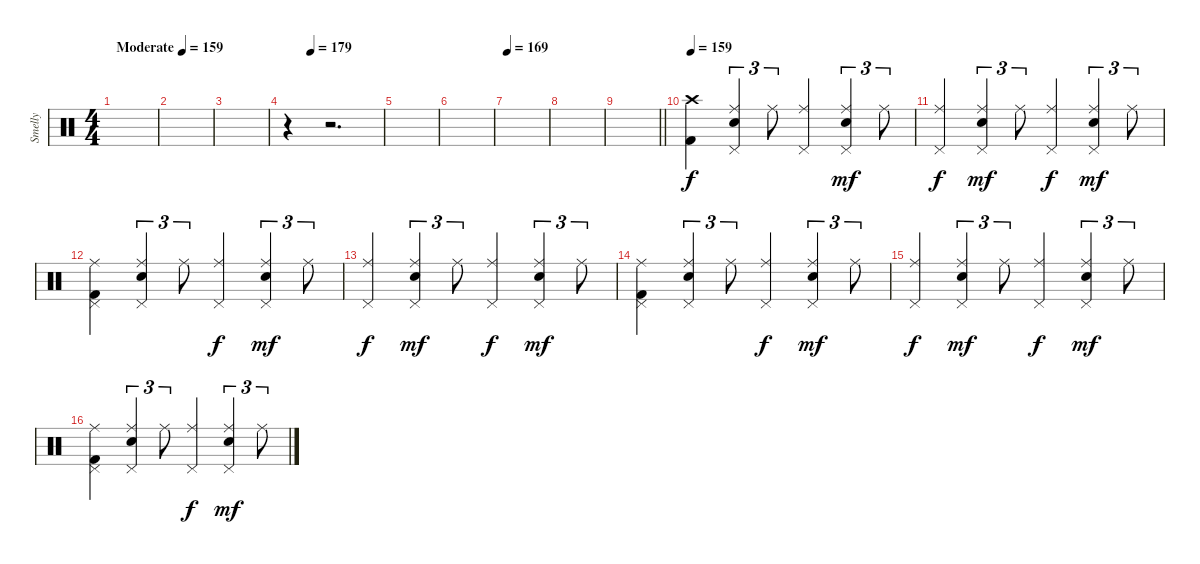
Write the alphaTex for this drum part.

\track ("Smelly" "Smelly") {instrument percussion}
\staff {score}
\articulation defaults
\ts (4 4)
\tempo (159 "Moderate")
\clef neutral
\ks c
|
|
|
\tempo (179 0.25)
r.4 r.2{d} |
|
|
\tempo 169
|
|
\barLineRight lightlight
|
\section ("" "")
\tempo 159
("Crash high (hit)" "Kick (hit) 2").4 ("Pedal Hi-Hat (hit)" "Ride (middle)" "Electric Snare (hit)").4{tu (3 2)} "Ride (middle)".8{tu (3 2)} ("Pedal Hi-Hat (hit)" "Ride (middle)").4{dy f} ("Pedal Hi-Hat (hit)" "Ride (middle)" "Electric Snare (hit)").4{tu (3 2) dy mf} "Ride (middle)".8{tu (3 2)} |
("Pedal Hi-Hat (hit)" "Ride (middle)").4{dy f} ("Pedal Hi-Hat (hit)" "Ride (middle)" "Electric Snare (hit)").4{tu (3 2) dy mf} "Ride (middle)".8{tu (3 2)} ("Pedal Hi-Hat (hit)" "Ride (middle)").4{dy f} ("Pedal Hi-Hat (hit)" "Ride (middle)" "Electric Snare (hit)").4{tu (3 2) dy mf} "Ride (middle)".8{tu (3 2)} |
("Pedal Hi-Hat (hit)" "Ride (middle)" "Kick (hit) 2").4 ("Pedal Hi-Hat (hit)" "Ride (middle)" "Electric Snare (hit)").4{tu (3 2)} "Ride (middle)".8{tu (3 2)} ("Pedal Hi-Hat (hit)" "Ride (middle)").4{dy f} ("Pedal Hi-Hat (hit)" "Ride (middle)" "Electric Snare (hit)").4{tu (3 2) dy mf} "Ride (middle)".8{tu (3 2)} |
("Pedal Hi-Hat (hit)" "Ride (middle)").4{dy f} ("Pedal Hi-Hat (hit)" "Ride (middle)" "Electric Snare (hit)").4{tu (3 2) dy mf} "Ride (middle)".8{tu (3 2)} ("Pedal Hi-Hat (hit)" "Ride (middle)").4{dy f} ("Pedal Hi-Hat (hit)" "Ride (middle)" "Electric Snare (hit)").4{tu (3 2) dy mf} "Ride (middle)".8{tu (3 2)} |
("Pedal Hi-Hat (hit)" "Ride (middle)" "Kick (hit) 2").4 ("Pedal Hi-Hat (hit)" "Ride (middle)" "Electric Snare (hit)").4{tu (3 2)} "Ride (middle)".8{tu (3 2)} ("Pedal Hi-Hat (hit)" "Ride (middle)").4{dy f} ("Pedal Hi-Hat (hit)" "Ride (middle)" "Electric Snare (hit)").4{tu (3 2) dy mf} "Ride (middle)".8{tu (3 2)} |
("Pedal Hi-Hat (hit)" "Ride (middle)").4{dy f} ("Pedal Hi-Hat (hit)" "Ride (middle)" "Electric Snare (hit)").4{tu (3 2) dy mf} "Ride (middle)".8{tu (3 2)} ("Pedal Hi-Hat (hit)" "Ride (middle)").4{dy f} ("Pedal Hi-Hat (hit)" "Ride (middle)" "Electric Snare (hit)").4{tu (3 2) dy mf} "Ride (middle)".8{tu (3 2)} |
("Pedal Hi-Hat (hit)" "Ride (middle)" "Kick (hit) 2").4 ("Pedal Hi-Hat (hit)" "Ride (middle)" "Electric Snare (hit)").4{tu (3 2)} "Ride (middle)".8{tu (3 2)} ("Pedal Hi-Hat (hit)" "Ride (middle)").4{dy f} ("Pedal Hi-Hat (hit)" "Ride (middle)" "Electric Snare (hit)").4{tu (3 2) dy mf} "Ride (middle)".8{tu (3 2)}
